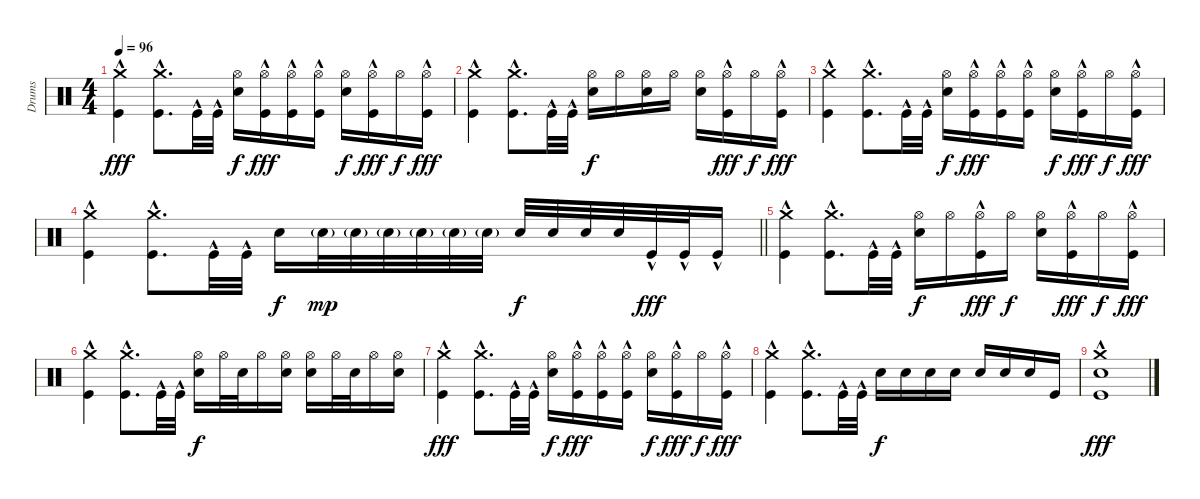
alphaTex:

\track ("Drums" "Drums") {instrument percussion}
\staff {score}
\articulation defaults
\ts (4 4)
\tempo 96
\clef neutral
\ks c
("Crash medium (hit)" "Kick (hit)"{hac}).4{dy fff} ("Crash medium (hit)" "Kick (hit)"{hac}).8{d} "Kick (hit)"{hac}.32 "Kick (hit)"{hac}.32 ("Hi-Hat (open)" "Electric Snare (hit)").16{dy f} ("Hi-Hat (open)" "Kick (hit)"{hac}).16{dy fff} ("Hi-Hat (open)" "Kick (hit)"{hac}).16 ("Hi-Hat (open)" "Kick (hit)"{hac}).16 ("Hi-Hat (open)" "Electric Snare (hit)").16{dy f} ("Hi-Hat (open)" "Kick (hit)"{hac}).16{dy fff} "Hi-Hat (open)".16{dy f} ("Hi-Hat (open)" "Kick (hit)"{hac}).16{dy fff} |
("Crash medium (hit)" "Kick (hit)"{hac}).4 ("Crash medium (hit)" "Kick (hit)"{hac}).8{d} "Kick (hit)"{hac}.32 "Kick (hit)"{hac}.32 ("Hi-Hat (open)" "Electric Snare (hit)").16{dy f} "Hi-Hat (open)".16 ("Hi-Hat (open)" "Electric Snare (hit)").16 "Hi-Hat (open)".16 ("Hi-Hat (open)" "Electric Snare (hit)").16 ("Hi-Hat (open)" "Kick (hit)"{hac}).16{dy fff} "Hi-Hat (open)".16{dy f} ("Hi-Hat (open)" "Kick (hit)"{hac}).16{dy fff} |
("Crash medium (hit)" "Kick (hit)"{hac}).4 ("Crash medium (hit)" "Kick (hit)"{hac}).8{d} "Kick (hit)"{hac}.32 "Kick (hit)"{hac}.32 ("Hi-Hat (open)" "Electric Snare (hit)").16{dy f} ("Hi-Hat (open)" "Kick (hit)"{hac}).16{dy fff} ("Hi-Hat (open)" "Kick (hit)"{hac}).16 ("Hi-Hat (open)" "Kick (hit)"{hac}).16 ("Hi-Hat (open)" "Electric Snare (hit)").16{dy f} ("Hi-Hat (open)" "Kick (hit)"{hac}).16{dy fff} "Hi-Hat (open)".16{dy f} ("Hi-Hat (open)" "Kick (hit)"{hac}).16{dy fff} |
\barLineRight lightlight
("Crash medium (hit)" "Kick (hit)"{hac}).4 ("Crash medium (hit)" "Kick (hit)"{hac}).8{d} "Kick (hit)"{hac}.32 "Kick (hit)"{hac}.32 "Electric Snare (hit)".16{dy f} "Electric Snare (hit)"{g}.32{dy mp} "Electric Snare (hit)"{g}.32 "Electric Snare (hit)"{g}.32 "Electric Snare (hit)"{g}.32 "Electric Snare (hit)"{g}.32 "Electric Snare (hit)"{g}.32 "Electric Snare (hit)".32{dy f} "Electric Snare (hit)".32 "Electric Snare (hit)".32 "Electric Snare (hit)".32 "Kick (hit)"{hac}.32{dy fff} "Kick (hit)"{hac}.32 "Kick (hit)"{hac}.16 |
("Crash medium (hit)" "Kick (hit)"{hac}).4 ("Crash medium (hit)" "Kick (hit)"{hac}).8{d} "Kick (hit)"{hac}.32 "Kick (hit)"{hac}.32 ("Hi-Hat (open)" "Electric Snare (hit)").16{dy f} "Hi-Hat (open)".16 ("Hi-Hat (open)" "Kick (hit)"{hac}).16{dy fff} "Hi-Hat (open)".16{dy f} ("Hi-Hat (open)" "Electric Snare (hit)").16 ("Hi-Hat (open)" "Kick (hit)"{hac}).16{dy fff} "Hi-Hat (open)".16{dy f} ("Hi-Hat (open)" "Kick (hit)"{hac}).16{dy fff} |
("Crash medium (hit)" "Kick (hit)"{hac}).4 ("Crash medium (hit)" "Kick (hit)"{hac}).8{d} "Kick (hit)"{hac}.32 "Kick (hit)"{hac}.32 ("Hi-Hat (open)" "Electric Snare (hit)").16{dy f} "Hi-Hat (open)".32 "Electric Snare (hit)".32 "Hi-Hat (open)".16 ("Hi-Hat (open)" "Electric Snare (hit)").16 ("Hi-Hat (open)" "Electric Snare (hit)").16 "Hi-Hat (open)".32 "Electric Snare (hit)".32 "Hi-Hat (open)".16 ("Hi-Hat (open)" "Electric Snare (hit)").16 |
("Crash medium (hit)" "Kick (hit)"{hac}).4{dy fff} ("Crash medium (hit)" "Kick (hit)"{hac}).8{d} "Kick (hit)"{hac}.32 "Kick (hit)"{hac}.32 ("Hi-Hat (open)" "Electric Snare (hit)").16{dy f} ("Hi-Hat (open)" "Kick (hit)"{hac}).16{dy fff} ("Hi-Hat (open)" "Kick (hit)"{hac}).16 ("Hi-Hat (open)" "Kick (hit)"{hac}).16 ("Hi-Hat (open)" "Electric Snare (hit)").16{dy f} ("Hi-Hat (open)" "Kick (hit)"{hac}).16{dy fff} "Hi-Hat (open)".16{dy f} ("Hi-Hat (open)" "Kick (hit)"{hac}).16{dy fff} |
("Crash medium (hit)" "Kick (hit)"{hac}).4 ("Crash medium (hit)" "Kick (hit)"{hac}).8{d} "Kick (hit)"{hac}.32 "Kick (hit)"{hac}.32 "Electric Snare (hit)".16{dy f} "Electric Snare (hit)".16 "Electric Snare (hit)".16 "Electric Snare (hit)".16 "Electric Snare (hit)".16 "Electric Snare (hit)".16 "Electric Snare (hit)".16 "Kick (hit)".16 |
("Crash medium (hit)" "Electric Snare (hit)" "Kick (hit)"{hac}).1{dy fff}
